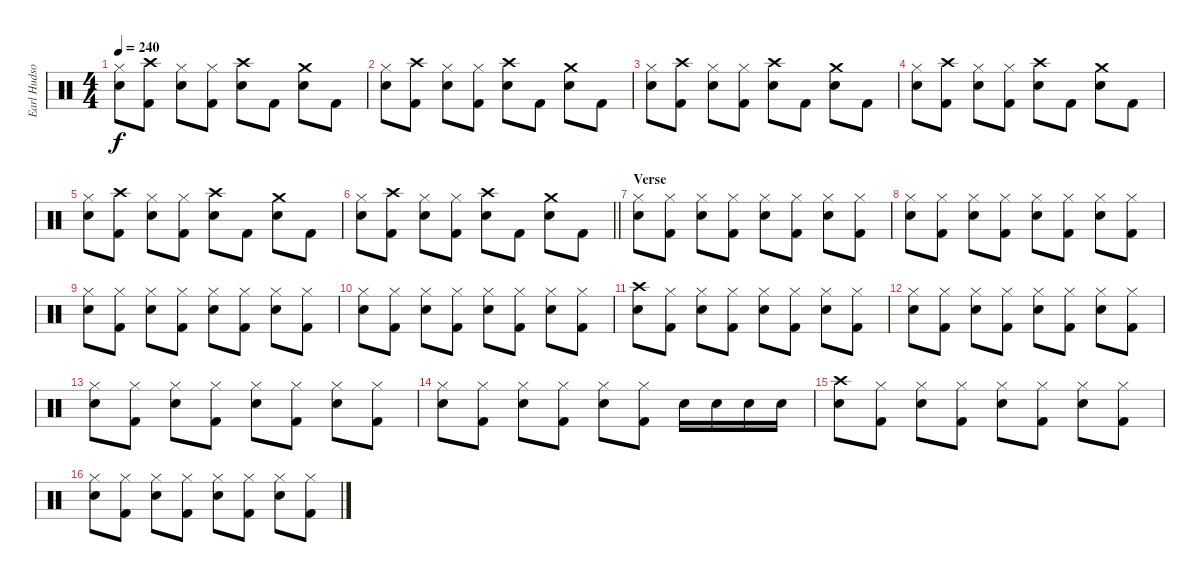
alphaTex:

\track ("Earl Hudson" "Earl Hudso") {instrument percussion}
\staff {score}
\articulation defaults
\ts (4 4)
\tempo 240
\clef neutral
\ks c
("Hi-Hat (closed)" "Snare (hit) 2").8{dy f} ("Crash high (hit)" "Kick (hit) 2").8 ("Hi-Hat (closed)" "Snare (hit) 2").8 ("Hi-Hat (closed)" "Kick (hit) 2").8 ("Crash high (hit)" "Snare (hit) 2").8 "Kick (hit) 2".8 ("Crash medium (hit)" "Snare (hit) 2").8 "Kick (hit) 2".8 |
("Hi-Hat (closed)" "Snare (hit) 2").8 ("Crash high (hit)" "Kick (hit) 2").8 ("Hi-Hat (closed)" "Snare (hit) 2").8 ("Hi-Hat (closed)" "Kick (hit) 2").8 ("Crash high (hit)" "Snare (hit) 2").8 "Kick (hit) 2".8 ("Crash medium (hit)" "Snare (hit) 2").8 "Kick (hit) 2".8 |
("Hi-Hat (closed)" "Snare (hit) 2").8 ("Crash high (hit)" "Kick (hit) 2").8 ("Hi-Hat (closed)" "Snare (hit) 2").8 ("Hi-Hat (closed)" "Kick (hit) 2").8 ("Crash high (hit)" "Snare (hit) 2").8 "Kick (hit) 2".8 ("Crash medium (hit)" "Snare (hit) 2").8 "Kick (hit) 2".8 |
("Hi-Hat (closed)" "Snare (hit) 2").8 ("Crash high (hit)" "Kick (hit) 2").8 ("Hi-Hat (closed)" "Snare (hit) 2").8 ("Hi-Hat (closed)" "Kick (hit) 2").8 ("Crash high (hit)" "Snare (hit) 2").8 "Kick (hit) 2".8 ("Crash medium (hit)" "Snare (hit) 2").8 "Kick (hit) 2".8 |
("Hi-Hat (closed)" "Snare (hit) 2").8 ("Crash high (hit)" "Kick (hit) 2").8 ("Hi-Hat (closed)" "Snare (hit) 2").8 ("Hi-Hat (closed)" "Kick (hit) 2").8 ("Crash high (hit)" "Snare (hit) 2").8 "Kick (hit) 2".8 ("Crash medium (hit)" "Snare (hit) 2").8 "Kick (hit) 2".8 |
\barLineRight lightlight
("Hi-Hat (closed)" "Snare (hit) 2").8 ("Crash high (hit)" "Kick (hit) 2").8 ("Hi-Hat (closed)" "Snare (hit) 2").8 ("Hi-Hat (closed)" "Kick (hit) 2").8 ("Crash high (hit)" "Snare (hit) 2").8 "Kick (hit) 2".8 ("Crash medium (hit)" "Snare (hit) 2").8 "Kick (hit) 2".8 |
\section ("" "Verse")
("Hi-Hat (closed)" "Snare (hit) 2").8 ("Hi-Hat (closed)" "Kick (hit) 2").8 ("Hi-Hat (closed)" "Snare (hit) 2").8 ("Hi-Hat (closed)" "Kick (hit) 2").8 ("Hi-Hat (closed)" "Snare (hit) 2").8 ("Hi-Hat (closed)" "Kick (hit) 2").8 ("Hi-Hat (closed)" "Snare (hit) 2").8 ("Hi-Hat (closed)" "Kick (hit) 2").8 |
("Hi-Hat (closed)" "Snare (hit) 2").8 ("Hi-Hat (closed)" "Kick (hit) 2").8 ("Hi-Hat (closed)" "Snare (hit) 2").8 ("Hi-Hat (closed)" "Kick (hit) 2").8 ("Hi-Hat (closed)" "Snare (hit) 2").8 ("Hi-Hat (closed)" "Kick (hit) 2").8 ("Hi-Hat (closed)" "Snare (hit) 2").8 ("Hi-Hat (closed)" "Kick (hit) 2").8 |
("Hi-Hat (closed)" "Snare (hit) 2").8 ("Hi-Hat (closed)" "Kick (hit) 2").8 ("Hi-Hat (closed)" "Snare (hit) 2").8 ("Hi-Hat (closed)" "Kick (hit) 2").8 ("Hi-Hat (closed)" "Snare (hit) 2").8 ("Hi-Hat (closed)" "Kick (hit) 2").8 ("Hi-Hat (closed)" "Snare (hit) 2").8 ("Hi-Hat (closed)" "Kick (hit) 2").8 |
("Hi-Hat (closed)" "Snare (hit) 2").8 ("Hi-Hat (closed)" "Kick (hit) 2").8 ("Hi-Hat (closed)" "Snare (hit) 2").8 ("Hi-Hat (closed)" "Kick (hit) 2").8 ("Hi-Hat (closed)" "Snare (hit) 2").8 ("Hi-Hat (closed)" "Kick (hit) 2").8 ("Hi-Hat (closed)" "Snare (hit) 2").8 ("Hi-Hat (closed)" "Kick (hit) 2").8 |
("Crash high (hit)" "Snare (hit) 2").8 ("Hi-Hat (closed)" "Kick (hit) 2").8 ("Hi-Hat (closed)" "Snare (hit) 2").8 ("Hi-Hat (closed)" "Kick (hit) 2").8 ("Hi-Hat (closed)" "Snare (hit) 2").8 ("Hi-Hat (closed)" "Kick (hit) 2").8 ("Hi-Hat (closed)" "Snare (hit) 2").8 ("Hi-Hat (closed)" "Kick (hit) 2").8 |
("Hi-Hat (closed)" "Snare (hit) 2").8 ("Hi-Hat (closed)" "Kick (hit) 2").8 ("Hi-Hat (closed)" "Snare (hit) 2").8 ("Hi-Hat (closed)" "Kick (hit) 2").8 ("Hi-Hat (closed)" "Snare (hit) 2").8 ("Hi-Hat (closed)" "Kick (hit) 2").8 ("Hi-Hat (closed)" "Snare (hit) 2").8 ("Hi-Hat (closed)" "Kick (hit) 2").8 |
("Hi-Hat (closed)" "Snare (hit) 2").8 ("Hi-Hat (closed)" "Kick (hit) 2").8 ("Hi-Hat (closed)" "Snare (hit) 2").8 ("Hi-Hat (closed)" "Kick (hit) 2").8 ("Hi-Hat (closed)" "Snare (hit) 2").8 ("Hi-Hat (closed)" "Kick (hit) 2").8 ("Hi-Hat (closed)" "Snare (hit) 2").8 ("Hi-Hat (closed)" "Kick (hit) 2").8 |
("Hi-Hat (closed)" "Snare (hit) 2").8 ("Hi-Hat (closed)" "Kick (hit) 2").8 ("Hi-Hat (closed)" "Snare (hit) 2").8 ("Hi-Hat (closed)" "Kick (hit) 2").8 ("Hi-Hat (closed)" "Snare (hit) 2").8 ("Hi-Hat (closed)" "Kick (hit) 2").8 "Snare (hit) 2".16 "Snare (hit) 2".16 "Snare (hit) 2".16 "Snare (hit) 2".16 |
("Crash high (hit)" "Snare (hit) 2").8 ("Hi-Hat (closed)" "Kick (hit) 2").8 ("Hi-Hat (closed)" "Snare (hit) 2").8 ("Hi-Hat (closed)" "Kick (hit) 2").8 ("Hi-Hat (closed)" "Snare (hit) 2").8 ("Hi-Hat (closed)" "Kick (hit) 2").8 ("Hi-Hat (closed)" "Snare (hit) 2").8 ("Hi-Hat (closed)" "Kick (hit) 2").8 |
("Hi-Hat (closed)" "Snare (hit) 2").8 ("Hi-Hat (closed)" "Kick (hit) 2").8 ("Hi-Hat (closed)" "Snare (hit) 2").8 ("Hi-Hat (closed)" "Kick (hit) 2").8 ("Hi-Hat (closed)" "Snare (hit) 2").8 ("Hi-Hat (closed)" "Kick (hit) 2").8 ("Hi-Hat (closed)" "Snare (hit) 2").8 ("Hi-Hat (closed)" "Kick (hit) 2").8
